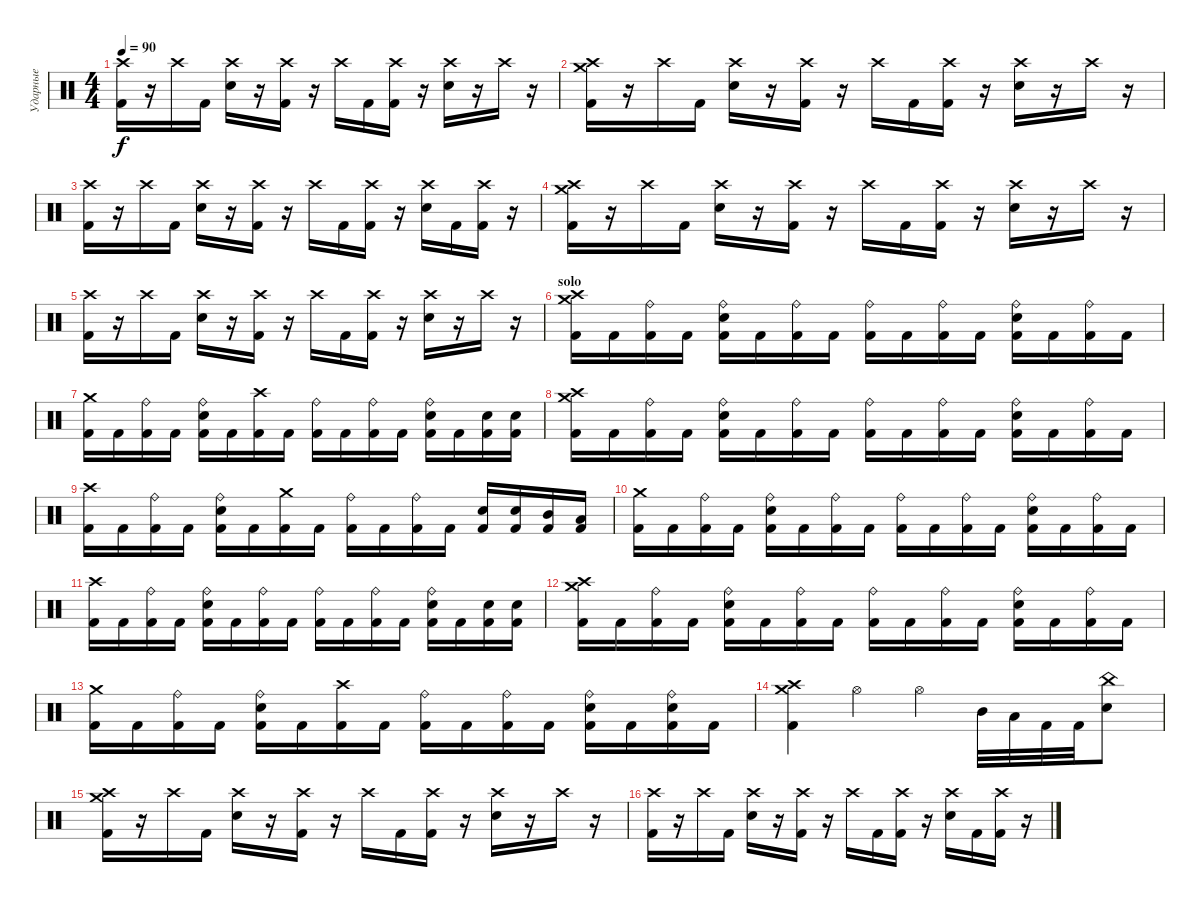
\track ("Ударные" "Ударные") {instrument percussion}
\staff {score}
\articulation defaults
\ts (4 4)
\tempo 90
\clef neutral
\ks c
("Crash high (hit)" "Kick (hit) 2").16{dy f} r.16 "Crash high (hit)".16 "Kick (hit) 2".16 ("Crash high (hit)" "Electric Snare (hit)").16 r.16 ("Crash high (hit)" "Kick (hit) 2").16 r.16 "Crash high (hit)".16 "Kick (hit) 2".16 ("Crash high (hit)" "Kick (hit) 2").16 r.16 ("Crash high (hit)" "Electric Snare (hit)").16 r.16 "Crash high (hit)".16 r.16 |
("Crash high (hit)" "Crash medium (hit)" "Kick (hit) 2").16 r.16 "Crash high (hit)".16 "Kick (hit) 2".16 ("Crash high (hit)" "Electric Snare (hit)").16 r.16 ("Crash high (hit)" "Kick (hit) 2").16 r.16 "Crash high (hit)".16 "Kick (hit) 2".16 ("Crash high (hit)" "Kick (hit) 2").16 r.16 ("Crash high (hit)" "Electric Snare (hit)").16 r.16 "Crash high (hit)".16 r.16 |
("Crash high (hit)" "Kick (hit) 2").16 r.16 "Crash high (hit)".16 "Kick (hit) 2".16 ("Crash high (hit)" "Electric Snare (hit)").16 r.16 ("Crash high (hit)" "Kick (hit) 2").16 r.16 "Crash high (hit)".16 "Kick (hit) 2".16 ("Crash high (hit)" "Kick (hit) 2").16 r.16 ("Crash high (hit)" "Electric Snare (hit)").16 "Kick (hit) 2".16 ("Crash high (hit)" "Kick (hit) 2").16 r.16 |
("Crash high (hit)" "Crash medium (hit)" "Kick (hit) 2").16 r.16 "Crash high (hit)".16 "Kick (hit) 2".16 ("Crash high (hit)" "Electric Snare (hit)").16 r.16 ("Crash high (hit)" "Kick (hit) 2").16 r.16 "Crash high (hit)".16 "Kick (hit) 2".16 ("Crash high (hit)" "Kick (hit) 2").16 r.16 ("Crash high (hit)" "Electric Snare (hit)").16 r.16 "Crash high (hit)".16 r.16 |
("Crash high (hit)" "Kick (hit) 2").16 r.16 "Crash high (hit)".16 "Kick (hit) 2".16 ("Crash high (hit)" "Electric Snare (hit)").16 r.16 ("Crash high (hit)" "Kick (hit) 2").16 r.16 "Crash high (hit)".16 "Kick (hit) 2".16 ("Crash high (hit)" "Kick (hit) 2").16 r.16 ("Crash high (hit)" "Electric Snare (hit)").16 r.16 "Crash high (hit)".16 r.16 |
\section ("" "solo")
("Crash medium (hit)" "Crash high (hit)" "Kick (hit) 2").16 "Kick (hit) 2".16 ("Ride (bell)" "Kick (hit) 2").16 "Kick (hit) 2".16 ("Ride (bell)" "Electric Snare (hit)" "Kick (hit) 2").16 "Kick (hit) 2".16 ("Ride (bell)" "Kick (hit) 2").16 "Kick (hit) 2".16 ("Ride (bell)" "Kick (hit) 2").16 "Kick (hit) 2".16 ("Ride (bell)" "Kick (hit) 2").16 "Kick (hit) 2".16 ("Ride (bell)" "Electric Snare (hit)" "Kick (hit) 2").16 "Kick (hit) 2".16 ("Ride (bell)" "Kick (hit) 2").16 "Kick (hit) 2".16 |
("Crash medium (hit)" "Kick (hit) 2").16 "Kick (hit) 2".16 ("Ride (bell)" "Kick (hit) 2").16 "Kick (hit) 2".16 ("Ride (bell)" "Electric Snare (hit)" "Kick (hit) 2").16 "Kick (hit) 2".16 ("Crash high (hit)" "Kick (hit) 2").16 "Kick (hit) 2".16 ("Ride (bell)" "Kick (hit) 2").16 "Kick (hit) 2".16 ("Ride (bell)" "Kick (hit) 2").16 "Kick (hit) 2".16 ("Ride (bell)" "Electric Snare (hit)" "Kick (hit) 2").16 "Kick (hit) 2".16 ("Electric Snare (hit)" "Kick (hit) 2").16 ("Electric Snare (hit)" "Kick (hit) 2").16 |
("Crash medium (hit)" "Crash high (hit)" "Kick (hit) 2").16 "Kick (hit) 2".16 ("Ride (bell)" "Kick (hit) 2").16 "Kick (hit) 2".16 ("Ride (bell)" "Electric Snare (hit)" "Kick (hit) 2").16 "Kick (hit) 2".16 ("Ride (bell)" "Kick (hit) 2").16 "Kick (hit) 2".16 ("Ride (bell)" "Kick (hit) 2").16 "Kick (hit) 2".16 ("Ride (bell)" "Kick (hit) 2").16 "Kick (hit) 2".16 ("Ride (bell)" "Electric Snare (hit)" "Kick (hit) 2").16 "Kick (hit) 2".16 ("Ride (bell)" "Kick (hit) 2").16 "Kick (hit) 2".16 |
("Crash high (hit)" "Kick (hit) 2").16 "Kick (hit) 2".16 ("Ride (bell)" "Kick (hit) 2").16 "Kick (hit) 2".16 ("Ride (bell)" "Electric Snare (hit)" "Kick (hit) 2").16 "Kick (hit) 2".16 ("Crash medium (hit)" "Kick (hit) 2").16 "Kick (hit) 2".16 ("Ride (bell)" "Kick (hit) 2").16 "Kick (hit) 2".16 ("Ride (bell)" "Kick (hit) 2").16 "Kick (hit) 2".16 ("Electric Snare (hit)" "Kick (hit) 2").16 ("Electric Snare (hit)" "Kick (hit) 2").16 ("Mid Tom (hit)" "Kick (hit) 2").16 ("Low Tom (hit)" "Kick (hit) 2").16 |
("Crash medium (hit)" "Kick (hit) 2").16 "Kick (hit) 2".16 ("Ride (bell)" "Kick (hit) 2").16 "Kick (hit) 2".16 ("Ride (bell)" "Electric Snare (hit)" "Kick (hit) 2").16 "Kick (hit) 2".16 ("Ride (bell)" "Kick (hit) 2").16 "Kick (hit) 2".16 ("Ride (bell)" "Kick (hit) 2").16 "Kick (hit) 2".16 ("Ride (bell)" "Kick (hit) 2").16 "Kick (hit) 2".16 ("Ride (bell)" "Electric Snare (hit)" "Kick (hit) 2").16 "Kick (hit) 2".16 ("Ride (bell)" "Kick (hit) 2").16 "Kick (hit) 2".16 |
("Crash high (hit)" "Kick (hit) 2").16 "Kick (hit) 2".16 ("Ride (bell)" "Kick (hit) 2").16 "Kick (hit) 2".16 ("Ride (bell)" "Electric Snare (hit)" "Kick (hit) 2").16 "Kick (hit) 2".16 ("Ride (bell)" "Kick (hit) 2").16 "Kick (hit) 2".16 ("Ride (bell)" "Kick (hit) 2").16 "Kick (hit) 2".16 ("Ride (bell)" "Kick (hit) 2").16 "Kick (hit) 2".16 ("Ride (bell)" "Electric Snare (hit)" "Kick (hit) 2").16 "Kick (hit) 2".16 ("Electric Snare (hit)" "Kick (hit) 2").16 ("Electric Snare (hit)" "Kick (hit) 2").16 |
("Crash high (hit)" "Crash medium (hit)" "Kick (hit) 2").16 "Kick (hit) 2".16 ("Ride (bell)" "Kick (hit) 2").16 "Kick (hit) 2".16 ("Ride (bell)" "Electric Snare (hit)" "Kick (hit) 2").16 "Kick (hit) 2".16 ("Ride (bell)" "Kick (hit) 2").16 "Kick (hit) 2".16 ("Ride (bell)" "Kick (hit) 2").16 "Kick (hit) 2".16 ("Ride (bell)" "Kick (hit) 2").16 "Kick (hit) 2".16 ("Ride (bell)" "Electric Snare (hit)" "Kick (hit) 2").16 "Kick (hit) 2".16 ("Ride (bell)" "Kick (hit) 2").16 "Kick (hit) 2".16 |
("Crash medium (hit)" "Kick (hit) 2").16 "Kick (hit) 2".16 ("Ride (bell)" "Kick (hit) 2").16 "Kick (hit) 2".16 ("Ride (bell)" "Electric Snare (hit)" "Kick (hit) 2").16 "Kick (hit) 2".16 ("Crash high (hit)" "Kick (hit) 2").16 "Kick (hit) 2".16 ("Ride (bell)" "Kick (hit) 2").16 "Kick (hit) 2".16 ("Ride (bell)" "Kick (hit) 2").16 "Kick (hit) 2".16 ("Ride (bell)" "Electric Snare (hit)" "Kick (hit) 2").16 "Kick (hit) 2".16 ("Ride (bell)" "Electric Snare (hit)" "Kick (hit) 2").16 "Kick (hit) 2".16 |
("Crash high (hit)" "Crash medium (hit)" "Kick (hit) 2").4 "Hi-Hat (open)".4 "Hi-Hat (open)".4 "Mid Tom (hit)".32 "Low Tom (hit)".32 "Kick (hit) 2".32 "Kick (hit) 2".32 ("China (hit)" "Electric Snare (hit)").8 |
("Crash high (hit)" "Crash medium (hit)" "Kick (hit) 2").16 r.16 "Crash high (hit)".16 "Kick (hit) 2".16 ("Crash high (hit)" "Electric Snare (hit)").16 r.16 ("Crash high (hit)" "Kick (hit) 2").16 r.16 "Crash high (hit)".16 "Kick (hit) 2".16 ("Crash high (hit)" "Kick (hit) 2").16 r.16 ("Crash high (hit)" "Electric Snare (hit)").16 r.16 "Crash high (hit)".16 r.16 |
("Crash high (hit)" "Kick (hit) 2").16 r.16 "Crash high (hit)".16 "Kick (hit) 2".16 ("Crash high (hit)" "Electric Snare (hit)").16 r.16 ("Crash high (hit)" "Kick (hit) 2").16 r.16 "Crash high (hit)".16 "Kick (hit) 2".16 ("Crash high (hit)" "Kick (hit) 2").16 r.16 ("Crash high (hit)" "Electric Snare (hit)").16 "Kick (hit) 2".16 ("Crash high (hit)" "Kick (hit) 2").16 r.16
